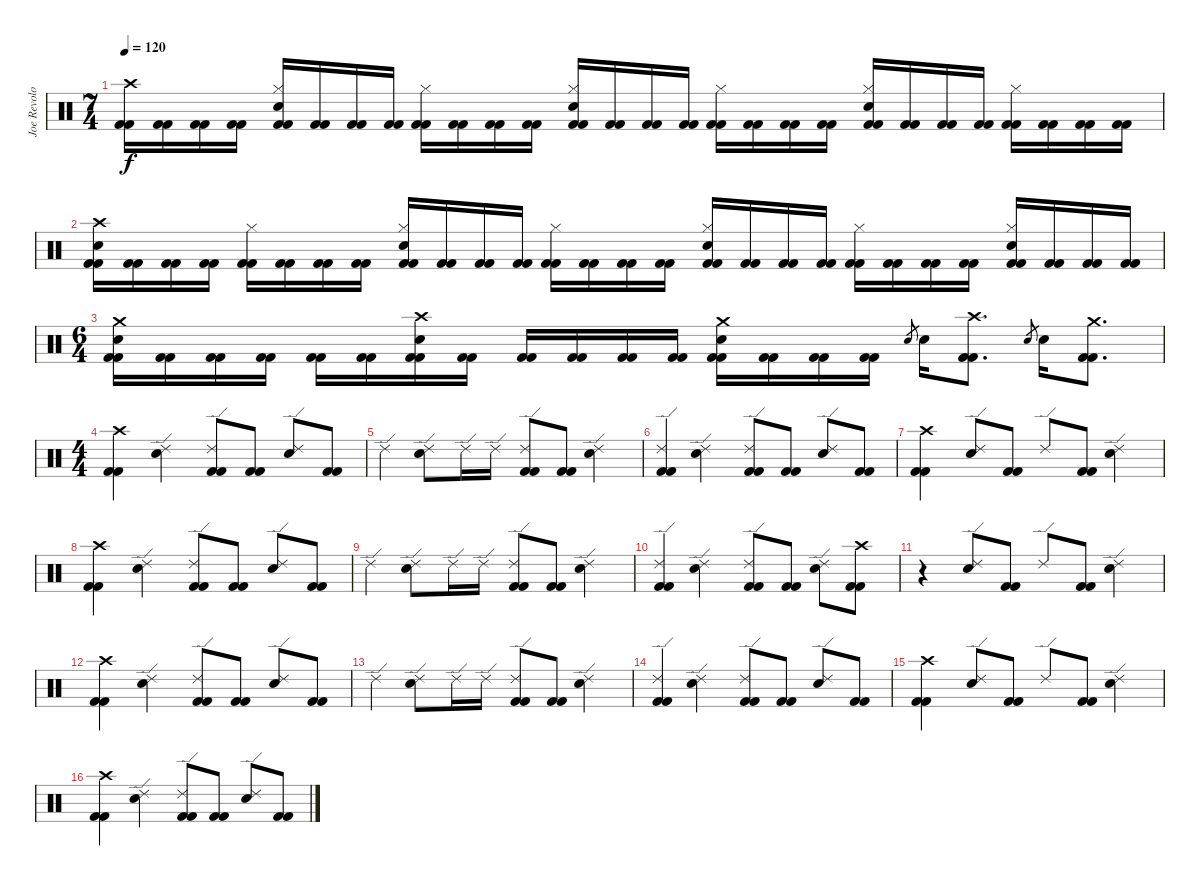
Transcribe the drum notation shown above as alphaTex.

\track ("Joe Revolo" "Joe Revolo") {instrument percussion}
\staff {score}
\articulation defaults
\ts (7 4)
\tempo 120
\clef neutral
\ks c
("Crash high (hit)" "Kick (hit) 2" "Kick (hit) 2").16{dy f} ("Kick (hit) 2" "Kick (hit) 2").16 ("Kick (hit) 2" "Kick (hit) 2").16 ("Kick (hit) 2" "Kick (hit) 2").16 ("Hi-Hat (closed)" "Electric Snare (hit)" "Kick (hit) 2" "Kick (hit) 2").16 ("Kick (hit) 2" "Kick (hit) 2").16 ("Kick (hit) 2" "Kick (hit) 2").16 ("Kick (hit) 2" "Kick (hit) 2").16 ("Hi-Hat (closed)" "Kick (hit) 2" "Kick (hit) 2").16 ("Kick (hit) 2" "Kick (hit) 2").16 ("Kick (hit) 2" "Kick (hit) 2").16 ("Kick (hit) 2" "Kick (hit) 2").16 ("Hi-Hat (closed)" "Electric Snare (hit)" "Kick (hit) 2" "Kick (hit) 2").16 ("Kick (hit) 2" "Kick (hit) 2").16 ("Kick (hit) 2" "Kick (hit) 2").16 ("Kick (hit) 2" "Kick (hit) 2").16 ("Hi-Hat (closed)" "Kick (hit) 2" "Kick (hit) 2").16 ("Kick (hit) 2" "Kick (hit) 2").16 ("Kick (hit) 2" "Kick (hit) 2").16 ("Kick (hit) 2" "Kick (hit) 2").16 ("Hi-Hat (closed)" "Electric Snare (hit)" "Kick (hit) 2" "Kick (hit) 2").16 ("Kick (hit) 2" "Kick (hit) 2").16 ("Kick (hit) 2" "Kick (hit) 2").16 ("Kick (hit) 2" "Kick (hit) 2").16 ("Hi-Hat (closed)" "Kick (hit) 2" "Kick (hit) 2").16 ("Kick (hit) 2" "Kick (hit) 2").16 ("Kick (hit) 2" "Kick (hit) 2").16 ("Kick (hit) 2" "Kick (hit) 2").16 |
("Crash high (hit)" "Electric Snare (hit)" "Kick (hit) 2" "Kick (hit) 2").16 ("Kick (hit) 2" "Kick (hit) 2").16 ("Kick (hit) 2" "Kick (hit) 2").16 ("Kick (hit) 2" "Kick (hit) 2").16 ("Hi-Hat (closed)" "Kick (hit) 2" "Kick (hit) 2").16 ("Kick (hit) 2" "Kick (hit) 2").16 ("Kick (hit) 2" "Kick (hit) 2").16 ("Kick (hit) 2" "Kick (hit) 2").16 ("Hi-Hat (closed)" "Electric Snare (hit)" "Kick (hit) 2" "Kick (hit) 2").16 ("Kick (hit) 2" "Kick (hit) 2").16 ("Kick (hit) 2" "Kick (hit) 2").16 ("Kick (hit) 2" "Kick (hit) 2").16 ("Hi-Hat (closed)" "Kick (hit) 2" "Kick (hit) 2").16 ("Kick (hit) 2" "Kick (hit) 2").16 ("Kick (hit) 2" "Kick (hit) 2").16 ("Kick (hit) 2" "Kick (hit) 2").16 ("Hi-Hat (closed)" "Electric Snare (hit)" "Kick (hit) 2" "Kick (hit) 2").16 ("Kick (hit) 2" "Kick (hit) 2").16 ("Kick (hit) 2" "Kick (hit) 2").16 ("Kick (hit) 2" "Kick (hit) 2").16 ("Hi-Hat (closed)" "Kick (hit) 2" "Kick (hit) 2").16 ("Kick (hit) 2" "Kick (hit) 2").16 ("Kick (hit) 2" "Kick (hit) 2").16 ("Kick (hit) 2" "Kick (hit) 2").16 ("Hi-Hat (closed)" "Electric Snare (hit)" "Kick (hit) 2" "Kick (hit) 2").16 ("Kick (hit) 2" "Kick (hit) 2").16 ("Kick (hit) 2" "Kick (hit) 2").16 ("Kick (hit) 2" "Kick (hit) 2").16 |
\ts (6 4)
("Crash medium (hit)" "Electric Snare (hit)" "Kick (hit) 2" "Kick (hit) 2").16 ("Kick (hit) 2" "Kick (hit) 2").16 ("Kick (hit) 2" "Kick (hit) 2").16 ("Kick (hit) 2" "Kick (hit) 2").16 ("Kick (hit) 2" "Kick (hit) 2").16 ("Kick (hit) 2" "Kick (hit) 2").16 ("Crash high (hit)" "Electric Snare (hit)" "Kick (hit) 2" "Kick (hit) 2").16 ("Kick (hit) 2" "Kick (hit) 2").16 ("Kick (hit) 2" "Kick (hit) 2").16 ("Kick (hit) 2" "Kick (hit) 2").16 ("Kick (hit) 2" "Kick (hit) 2").16 ("Kick (hit) 2" "Kick (hit) 2").16 ("Crash medium (hit)" "Electric Snare (hit)" "Kick (hit) 2" "Kick (hit) 2").16 ("Kick (hit) 2" "Kick (hit) 2").16 ("Kick (hit) 2" "Kick (hit) 2").16 ("Kick (hit) 2" "Kick (hit) 2").16 "Electric Snare (hit)".8{gr} "Electric Snare (hit)".16 ("Crash high (hit)" "Kick (hit) 2" "Kick (hit) 2").8{d} "Electric Snare (hit)".8{gr} "Electric Snare (hit)".16 ("Crash medium (hit)" "Kick (hit) 2" "Kick (hit) 2").8{d} |
\ts (4 4)
("Crash high (hit)" "Kick (hit) 2" "Kick (hit) 2").4 ("Ride (edge) 2" "Electric Snare (hit)").4 ("Ride (edge) 2" "Kick (hit) 2" "Kick (hit) 2").8 ("Kick (hit) 2" "Kick (hit) 2").8 ("Ride (edge) 2" "Electric Snare (hit)").8 ("Kick (hit) 2" "Kick (hit) 2").8 |
"Ride (edge) 2".4 ("Ride (edge) 2" "Electric Snare (hit)").8 "Ride (edge) 2".16 "Ride (edge) 2".16 ("Ride (edge) 2" "Kick (hit) 2" "Kick (hit) 2").8 ("Kick (hit) 2" "Kick (hit) 2").8 ("Ride (edge) 2" "Electric Snare (hit)").4 |
("Ride (edge) 2" "Kick (hit) 2" "Kick (hit) 2").4 ("Ride (edge) 2" "Electric Snare (hit)").4 ("Ride (edge) 2" "Kick (hit) 2" "Kick (hit) 2").8 ("Kick (hit) 2" "Kick (hit) 2").8 ("Ride (edge) 2" "Electric Snare (hit)").8 ("Kick (hit) 2" "Kick (hit) 2").8 |
("Crash high (hit)" "Kick (hit) 2" "Kick (hit) 2").4 ("Ride (edge) 2" "Electric Snare (hit)").8 ("Kick (hit) 2" "Kick (hit) 2").8 "Ride (edge) 2".8 ("Kick (hit) 2" "Kick (hit) 2").8 ("Ride (edge) 2" "Electric Snare (hit)").4 |
("Crash high (hit)" "Kick (hit) 2" "Kick (hit) 2").4 ("Ride (edge) 2" "Electric Snare (hit)").4 ("Ride (edge) 2" "Kick (hit) 2" "Kick (hit) 2").8 ("Kick (hit) 2" "Kick (hit) 2").8 ("Ride (edge) 2" "Electric Snare (hit)").8 ("Kick (hit) 2" "Kick (hit) 2").8 |
"Ride (edge) 2".4 ("Ride (edge) 2" "Electric Snare (hit)").8 "Ride (edge) 2".16 "Ride (edge) 2".16 ("Ride (edge) 2" "Kick (hit) 2" "Kick (hit) 2").8 ("Kick (hit) 2" "Kick (hit) 2").8 ("Ride (edge) 2" "Electric Snare (hit)").4 |
("Ride (edge) 2" "Kick (hit) 2" "Kick (hit) 2").4 ("Ride (edge) 2" "Electric Snare (hit)").4 ("Ride (edge) 2" "Kick (hit) 2" "Kick (hit) 2").8 ("Kick (hit) 2" "Kick (hit) 2").8 ("Ride (edge) 2" "Electric Snare (hit)").8 ("Crash high (hit)" "Kick (hit) 2" "Kick (hit) 2").8 |
r.4 ("Ride (edge) 2" "Electric Snare (hit)").8 ("Kick (hit) 2" "Kick (hit) 2").8 "Ride (edge) 2".8 ("Kick (hit) 2" "Kick (hit) 2").8 ("Ride (edge) 2" "Electric Snare (hit)").4 |
("Crash high (hit)" "Kick (hit) 2" "Kick (hit) 2").4 ("Ride (edge) 2" "Electric Snare (hit)").4 ("Ride (edge) 2" "Kick (hit) 2" "Kick (hit) 2").8 ("Kick (hit) 2" "Kick (hit) 2").8 ("Ride (edge) 2" "Electric Snare (hit)").8 ("Kick (hit) 2" "Kick (hit) 2").8 |
"Ride (edge) 2".4 ("Ride (edge) 2" "Electric Snare (hit)").8 "Ride (edge) 2".16 "Ride (edge) 2".16 ("Ride (edge) 2" "Kick (hit) 2" "Kick (hit) 2").8 ("Kick (hit) 2" "Kick (hit) 2").8 ("Ride (edge) 2" "Electric Snare (hit)").4 |
("Ride (edge) 2" "Kick (hit) 2" "Kick (hit) 2").4 ("Ride (edge) 2" "Electric Snare (hit)").4 ("Ride (edge) 2" "Kick (hit) 2" "Kick (hit) 2").8 ("Kick (hit) 2" "Kick (hit) 2").8 ("Ride (edge) 2" "Electric Snare (hit)").8 ("Kick (hit) 2" "Kick (hit) 2").8 |
("Crash high (hit)" "Kick (hit) 2" "Kick (hit) 2").4 ("Ride (edge) 2" "Electric Snare (hit)").8 ("Kick (hit) 2" "Kick (hit) 2").8 "Ride (edge) 2".8 ("Kick (hit) 2" "Kick (hit) 2").8 ("Ride (edge) 2" "Electric Snare (hit)").4 |
("Crash high (hit)" "Kick (hit) 2" "Kick (hit) 2").4 ("Ride (edge) 2" "Electric Snare (hit)").4 ("Ride (edge) 2" "Kick (hit) 2" "Kick (hit) 2").8 ("Kick (hit) 2" "Kick (hit) 2").8 ("Ride (edge) 2" "Electric Snare (hit)").8 ("Kick (hit) 2" "Kick (hit) 2").8
